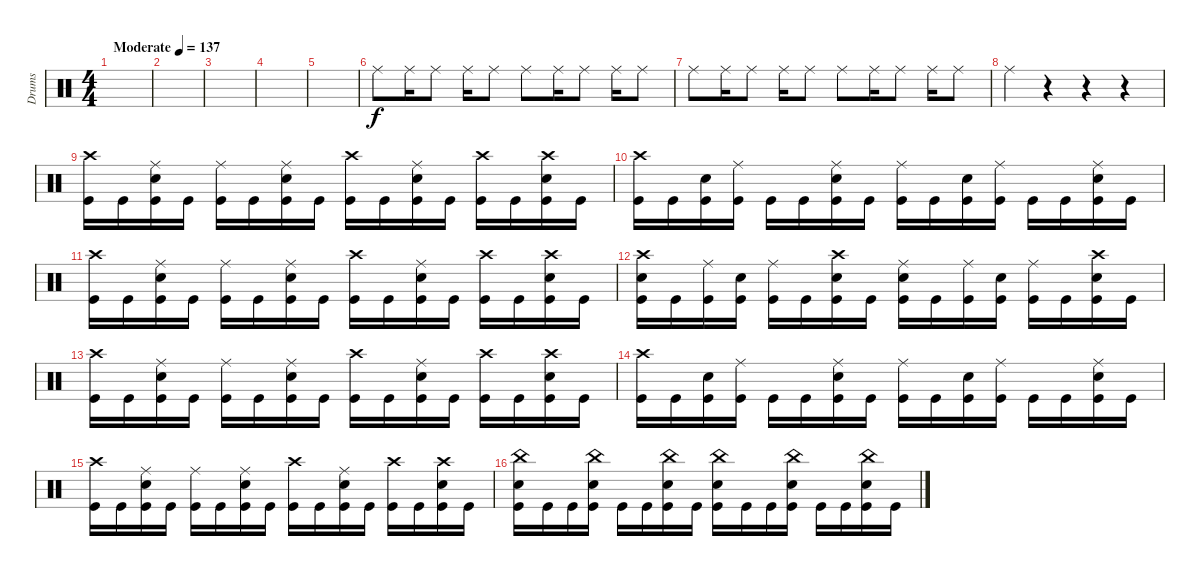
\track ("Drums" "Drums") {instrument percussion}
\staff {score}
\articulation defaults
\ts (4 4)
\tempo (137 "Moderate")
\clef neutral
\ks c
|
|
|
|
|
"Ride (middle)".8 "Ride (middle)".16 "Ride (middle)".8 "Ride (middle)".16 "Ride (middle)".8 "Ride (middle)".8 "Ride (middle)".16 "Ride (middle)".8 "Ride (middle)".16 "Ride (middle)".8 |
"Ride (middle)".8 "Ride (middle)".16 "Ride (middle)".8 "Ride (middle)".16 "Ride (middle)".8 "Ride (middle)".8 "Ride (middle)".16 "Ride (middle)".8 "Ride (middle)".16 "Ride (middle)".8 |
"Ride (middle)".4 r.4 r.4 r.4 |
("Crash high (hit)" "Kick (hit)").16 "Kick (hit)".16 ("Ride (middle)" "Snare (hit) 2" "Kick (hit)").16 "Kick (hit)".16 ("Ride (middle)" "Kick (hit)").16 "Kick (hit)".16 ("Ride (middle)" "Snare (hit) 2" "Kick (hit)").16 "Kick (hit)".16 ("Crash high (hit)" "Kick (hit)").16 "Kick (hit)".16 ("Ride (middle)" "Snare (hit) 2" "Kick (hit)").16 "Kick (hit)".16 ("Crash high (hit)" "Kick (hit)").16 "Kick (hit)".16 ("Crash high (hit)" "Snare (hit) 2" "Kick (hit)").16 "Kick (hit)".16 |
("Crash high (hit)" "Kick (hit)").16 "Kick (hit)".16 ("Snare (hit) 2" "Kick (hit)").16 ("Ride (middle)" "Kick (hit)").16 "Kick (hit)".16 "Kick (hit)".16 ("Ride (middle)" "Snare (hit) 2" "Kick (hit)").16 "Kick (hit)".16 ("Ride (middle)" "Kick (hit)").16 "Kick (hit)".16 ("Snare (hit) 2" "Kick (hit)").16 ("Ride (middle)" "Kick (hit)").16 "Kick (hit)".16 "Kick (hit)".16 ("Ride (middle)" "Snare (hit) 2" "Kick (hit)").16 "Kick (hit)".16 |
("Crash high (hit)" "Kick (hit)").16 "Kick (hit)".16 ("Ride (middle)" "Snare (hit) 2" "Kick (hit)").16 "Kick (hit)".16 ("Ride (middle)" "Kick (hit)").16 "Kick (hit)".16 ("Ride (middle)" "Snare (hit) 2" "Kick (hit)").16 "Kick (hit)".16 ("Crash high (hit)" "Kick (hit)").16 "Kick (hit)".16 ("Ride (middle)" "Snare (hit) 2" "Kick (hit)").16 "Kick (hit)".16 ("Crash high (hit)" "Kick (hit)").16 "Kick (hit)".16 ("Crash high (hit)" "Snare (hit) 2" "Kick (hit)").16 "Kick (hit)".16 |
("Crash high (hit)" "Snare (hit) 2" "Kick (hit)").16 "Kick (hit)".16 ("Ride (middle)" "Kick (hit)").16 ("Snare (hit) 2" "Kick (hit)").16 ("Ride (middle)" "Kick (hit)").16 "Kick (hit)".16 ("Crash high (hit)" "Snare (hit) 2" "Kick (hit)").16 "Kick (hit)".16 ("Ride (middle)" "Snare (hit) 2" "Kick (hit)").16 "Kick (hit)".16 ("Ride (middle)" "Kick (hit)").16 ("Snare (hit) 2" "Kick (hit)").16 ("Ride (middle)" "Kick (hit)").16 "Kick (hit)".16 ("Crash high (hit)" "Snare (hit) 2" "Kick (hit)").16 "Kick (hit)".16 |
("Crash high (hit)" "Kick (hit)").16 "Kick (hit)".16 ("Ride (middle)" "Snare (hit) 2" "Kick (hit)").16 "Kick (hit)".16 ("Ride (middle)" "Kick (hit)").16 "Kick (hit)".16 ("Ride (middle)" "Snare (hit) 2" "Kick (hit)").16 "Kick (hit)".16 ("Crash high (hit)" "Kick (hit)").16 "Kick (hit)".16 ("Ride (middle)" "Snare (hit) 2" "Kick (hit)").16 "Kick (hit)".16 ("Crash high (hit)" "Kick (hit)").16 "Kick (hit)".16 ("Crash high (hit)" "Snare (hit) 2" "Kick (hit)").16 "Kick (hit)".16 |
("Crash high (hit)" "Kick (hit)").16 "Kick (hit)".16 ("Snare (hit) 2" "Kick (hit)").16 ("Ride (middle)" "Kick (hit)").16 "Kick (hit)".16 "Kick (hit)".16 ("Ride (middle)" "Snare (hit) 2" "Kick (hit)").16 "Kick (hit)".16 ("Ride (middle)" "Kick (hit)").16 "Kick (hit)".16 ("Snare (hit) 2" "Kick (hit)").16 ("Ride (middle)" "Kick (hit)").16 "Kick (hit)".16 "Kick (hit)".16 ("Ride (middle)" "Snare (hit) 2" "Kick (hit)").16 "Kick (hit)".16 |
("Crash high (hit)" "Kick (hit)").16 "Kick (hit)".16 ("Ride (middle)" "Snare (hit) 2" "Kick (hit)").16 "Kick (hit)".16 ("Ride (middle)" "Kick (hit)").16 "Kick (hit)".16 ("Ride (middle)" "Snare (hit) 2" "Kick (hit)").16 "Kick (hit)".16 ("Crash high (hit)" "Kick (hit)").16 "Kick (hit)".16 ("Ride (middle)" "Snare (hit) 2" "Kick (hit)").16 "Kick (hit)".16 ("Crash high (hit)" "Kick (hit)").16 "Kick (hit)".16 ("Crash high (hit)" "Snare (hit) 2" "Kick (hit)").16 "Kick (hit)".16 |
("China (hit)" "Snare (hit) 2" "Kick (hit)").16 "Kick (hit)".16 "Kick (hit)".16 ("China (hit)" "Snare (hit) 2" "Kick (hit)").16 "Kick (hit)".16 "Kick (hit)".16 ("China (hit)" "Snare (hit) 2" "Kick (hit)").16 "Kick (hit)".16 ("China (hit)" "Snare (hit) 2" "Kick (hit)").16 "Kick (hit)".16 "Kick (hit)".16 ("China (hit)" "Snare (hit) 2" "Kick (hit)").16 "Kick (hit)".16 "Kick (hit)".16 ("China (hit)" "Snare (hit) 2" "Kick (hit)").16 "Kick (hit)".16
